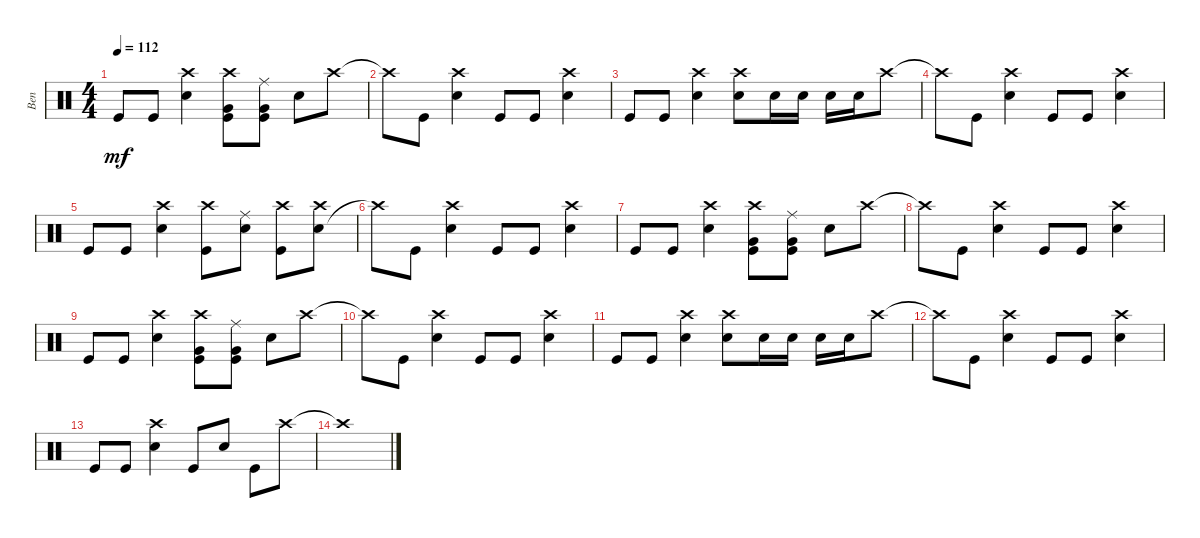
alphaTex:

\track ("Ben" "Ben") {instrument percussion}
\staff {score}
\articulation defaults
\ts (4 4)
\tempo 112
\clef neutral
\ks c "Kick (hit)".8{dy mf} "Kick (hit)".8
("Snare (hit) 2" "Crash high (hit)").4 ("Kick (hit)" "Very Low Tom (hit)" "Crash high (hit)").8 ("Kick (hit)" "Very Low Tom (hit)" "Ride (middle)").8 "Snare (hit) 2".8 "Crash high (hit)".8 |
"Crash high (hit)"{t}.8 "Kick (hit)".8 ("Snare (hit) 2" "Crash high (hit)").4 "Kick (hit)".8 "Kick (hit)".8 ("Snare (hit) 2" "Crash high (hit)").4 |
"Kick (hit)".8 "Kick (hit)".8 ("Snare (hit) 2" "Crash high (hit)").4 ("Snare (hit) 2" "Crash high (hit)").8 "Snare (hit) 2".16 "Snare (hit) 2".16 "Snare (hit) 2".16 "Snare (hit) 2".16 "Crash high (hit)".8 |
"Crash high (hit)"{t}.8 "Kick (hit)".8 ("Snare (hit) 2" "Crash high (hit)").4 "Kick (hit)".8 "Kick (hit)".8 ("Snare (hit) 2" "Crash high (hit)").4 |
"Kick (hit)".8 "Kick (hit)".8 ("Snare (hit) 2" "Crash high (hit)").4 ("Kick (hit)" "Crash high (hit)").8 ("Snare (hit) 2" "Ride (middle)").8 ("Kick (hit)" "Crash high (hit)").8 ("Snare (hit) 2" "Crash high (hit)").8 |
"Crash high (hit)"{t}.8 "Kick (hit)".8 ("Snare (hit) 2" "Crash high (hit)").4 "Kick (hit)".8 "Kick (hit)".8 ("Snare (hit) 2" "Crash high (hit)").4 |
"Kick (hit)".8 "Kick (hit)".8 ("Snare (hit) 2" "Crash high (hit)").4 ("Kick (hit)" "Very Low Tom (hit)" "Crash high (hit)").8 ("Kick (hit)" "Very Low Tom (hit)" "Ride (middle)").8 "Snare (hit) 2".8 "Crash high (hit)".8 |
"Crash high (hit)"{t}.8 "Kick (hit)".8 ("Snare (hit) 2" "Crash high (hit)").4 "Kick (hit)".8 "Kick (hit)".8 ("Snare (hit) 2" "Crash high (hit)").4 |
"Kick (hit)".8 "Kick (hit)".8 ("Snare (hit) 2" "Crash high (hit)").4 ("Kick (hit)" "Very Low Tom (hit)" "Crash high (hit)").8 ("Kick (hit)" "Very Low Tom (hit)" "Ride (middle)").8 "Snare (hit) 2".8 "Crash high (hit)".8 |
"Crash high (hit)"{t}.8 "Kick (hit)".8 ("Snare (hit) 2" "Crash high (hit)").4 "Kick (hit)".8 "Kick (hit)".8 ("Snare (hit) 2" "Crash high (hit)").4 |
"Kick (hit)".8 "Kick (hit)".8 ("Snare (hit) 2" "Crash high (hit)").4 ("Snare (hit) 2" "Crash high (hit)").8 "Snare (hit) 2".16 "Snare (hit) 2".16 "Snare (hit) 2".16 "Snare (hit) 2".16 "Crash high (hit)".8 |
"Crash high (hit)"{t}.8 "Kick (hit)".8 ("Snare (hit) 2" "Crash high (hit)").4 "Kick (hit)".8 "Kick (hit)".8 ("Snare (hit) 2" "Crash high (hit)").4 |
"Kick (hit)".8 "Kick (hit)".8 ("Snare (hit) 2" "Crash high (hit)").4 "Kick (hit)".8 "Snare (hit) 2".8 "Kick (hit)".8 "Crash high (hit)".8 |
"Crash high (hit)"{t}.1
